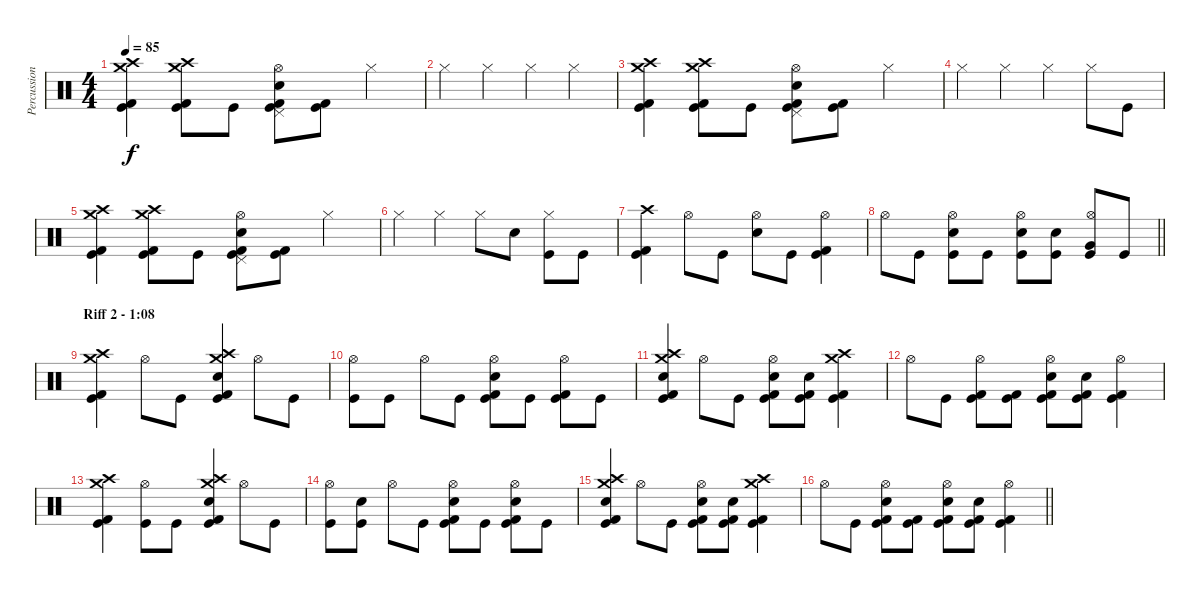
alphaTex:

\track ("Percussion" "Percussion") {instrument percussion}
\staff {score}
\articulation defaults
\ts (4 4)
\tempo 85
\clef neutral
\ks c
("Kick (hit)" "Kick (hit) 2" "Crash high (hit)" "Crash medium (hit)").4{dy f} ("Kick (hit)" "Kick (hit) 2" "Crash high (hit)" "Crash medium (hit)").8 "Kick (hit)".8 ("Kick (hit)" "Kick (hit) 2" "Snare (hit) 2" "Pedal Hi-Hat (hit)" "Hi-Hat (open)").8 ("Kick (hit)" "Kick (hit) 2").8 "Hi-Hat (closed)".4 |
"Hi-Hat (closed)".4 "Hi-Hat (closed)".4 "Hi-Hat (closed)".4 "Hi-Hat (closed)".4 |
("Kick (hit)" "Kick (hit) 2" "Crash high (hit)" "Crash medium (hit)").4 ("Kick (hit)" "Kick (hit) 2" "Crash high (hit)" "Crash medium (hit)").8 "Kick (hit)".8 ("Kick (hit)" "Kick (hit) 2" "Snare (hit) 2" "Pedal Hi-Hat (hit)" "Hi-Hat (open)").8 ("Kick (hit)" "Kick (hit) 2").8 "Hi-Hat (closed)".4 |
"Hi-Hat (closed)".4 "Hi-Hat (closed)".4 "Hi-Hat (closed)".4 "Hi-Hat (closed)".8 "Kick (hit)".8 |
("Kick (hit)" "Kick (hit) 2" "Crash high (hit)" "Crash medium (hit)").4 ("Kick (hit)" "Kick (hit) 2" "Crash high (hit)" "Crash medium (hit)").8 "Kick (hit)".8 ("Kick (hit)" "Kick (hit) 2" "Snare (hit) 2" "Pedal Hi-Hat (hit)" "Hi-Hat (open)").8 ("Kick (hit)" "Kick (hit) 2").8 "Hi-Hat (closed)".4 |
"Hi-Hat (closed)".4 "Hi-Hat (closed)".4 "Hi-Hat (closed)".8 "Snare (hit) 2".8 ("Kick (hit)" "Hi-Hat (closed)").8 "Kick (hit)".8 |
("Kick (hit)" "Kick (hit) 2" "Crash high (hit)").4 "Hi-Hat (open)".8 "Kick (hit)".8 ("Snare (hit) 2" "Hi-Hat (open)").8 "Kick (hit)".8 ("Kick (hit)" "Kick (hit) 2" "Hi-Hat (open)").4 |
\barLineRight lightlight "Hi-Hat (open)".8 "Kick (hit)".8
("Kick (hit)" "Snare (hit) 2" "Hi-Hat (open)").8 "Kick (hit)".8 ("Kick (hit)" "Snare (hit) 2" "Hi-Hat (open)").8 ("Kick (hit)" "Snare (hit) 2").8 ("Kick (hit)" "Very Low Tom (hit)" "Hi-Hat (open)").8 "Kick (hit)".8 |
\section ("" "Riff 2 - 1:08")
("Kick (hit)" "Kick (hit) 2" "Crash high (hit)" "Crash medium (hit)").4 "Hi-Hat (open)".8 "Kick (hit)".8 ("Kick (hit)" "Kick (hit) 2" "Snare (hit) 2" "Crash high (hit)" "Crash medium (hit)").4 "Hi-Hat (open)".8 "Kick (hit)".8 |
("Kick (hit)" "Hi-Hat (open)").8 "Kick (hit)".8 "Hi-Hat (open)".8 "Kick (hit)".8 ("Kick (hit)" "Kick (hit) 2" "Snare (hit) 2" "Hi-Hat (open)").8 "Kick (hit)".8 ("Kick (hit)" "Kick (hit) 2" "Hi-Hat (open)").8 "Kick (hit)".8 |
("Kick (hit)" "Kick (hit) 2" "Snare (hit) 2" "Crash high (hit)" "Crash medium (hit)").4 "Hi-Hat (open)".8 "Kick (hit)".8 ("Kick (hit)" "Kick (hit) 2" "Snare (hit) 2" "Hi-Hat (open)").8 ("Kick (hit)" "Kick (hit) 2" "Snare (hit) 2").8 ("Kick (hit)" "Kick (hit) 2" "Crash high (hit)" "Crash medium (hit)").4 |
"Hi-Hat (open)".8 "Kick (hit)".8 ("Kick (hit)" "Kick (hit) 2" "Hi-Hat (open)").8 ("Kick (hit)" "Kick (hit) 2").8 ("Kick (hit)" "Kick (hit) 2" "Snare (hit) 2" "Hi-Hat (open)").8 ("Kick (hit)" "Kick (hit) 2" "Snare (hit) 2").8 ("Kick (hit)" "Kick (hit) 2" "Hi-Hat (open)").4 |
("Kick (hit)" "Kick (hit) 2" "Crash high (hit)" "Crash medium (hit)").4 ("Kick (hit)" "Hi-Hat (open)").8 "Kick (hit)".8 ("Kick (hit)" "Kick (hit) 2" "Snare (hit) 2" "Crash high (hit)" "Crash medium (hit)").4 "Hi-Hat (open)".8 "Kick (hit)".8 |
("Kick (hit)" "Hi-Hat (open)").8 ("Kick (hit)" "Snare (hit) 2").8 "Hi-Hat (open)".8 "Kick (hit)".8 ("Kick (hit)" "Kick (hit) 2" "Snare (hit) 2" "Hi-Hat (open)").8 "Kick (hit)".8 ("Kick (hit)" "Kick (hit) 2" "Snare (hit) 2" "Hi-Hat (open)").8 "Kick (hit)".8 |
("Kick (hit)" "Kick (hit) 2" "Snare (hit) 2" "Crash high (hit)" "Crash medium (hit)").4 "Hi-Hat (open)".8 "Kick (hit)".8 ("Kick (hit)" "Kick (hit) 2" "Snare (hit) 2" "Hi-Hat (open)").8 ("Kick (hit)" "Kick (hit) 2" "Snare (hit) 2").8 ("Kick (hit)" "Kick (hit) 2" "Crash high (hit)" "Crash medium (hit)").4 |
\barLineRight lightlight "Hi-Hat (open)".8 "Kick (hit)".8
("Kick (hit)" "Kick (hit) 2" "Snare (hit) 2" "Hi-Hat (open)").8 ("Kick (hit)" "Kick (hit) 2").8 ("Kick (hit)" "Kick (hit) 2" "Snare (hit) 2" "Hi-Hat (open)").8 ("Kick (hit)" "Kick (hit) 2" "Snare (hit) 2").8 ("Kick (hit)" "Kick (hit) 2" "Hi-Hat (open)").4
